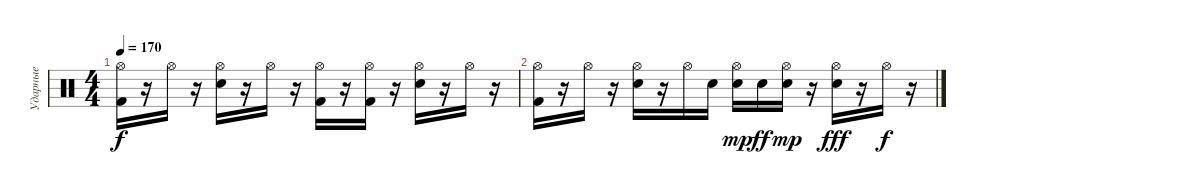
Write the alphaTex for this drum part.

\track ("Ударные" "Ударные") {instrument percussion}
\staff {score}
\articulation defaults
\ts (4 4)
\tempo 170
\clef neutral
\ks c
("Kick (hit) 2" "Hi-Hat (open)").16{dy f} r.16 "Hi-Hat (open)".16 r.16 ("Snare (hit) 2" "Hi-Hat (open)").16 r.16 "Hi-Hat (open)".16 r.16 ("Kick (hit) 2" "Hi-Hat (open)").16 r.16 ("Kick (hit) 2" "Hi-Hat (open)").16 r.16 ("Snare (hit) 2" "Hi-Hat (open)").16 r.16 "Hi-Hat (open)".16 r.16 |
("Kick (hit) 2" "Hi-Hat (open)").16 r.16 "Hi-Hat (open)".16 r.16 ("Snare (hit) 2" "Hi-Hat (open)").16 r.16 "Hi-Hat (open)".16 "Snare (hit) 2".16 ("Snare (hit) 2" "Hi-Hat (open)").16{dy mp} "Snare (hit) 2".16{dy ff} ("Snare (hit) 2" "Hi-Hat (open)").16{dy mp} r.16 ("Snare (hit) 2" "Hi-Hat (open)").16{dy fff} r.16 "Hi-Hat (open)".16{dy f} r.16
